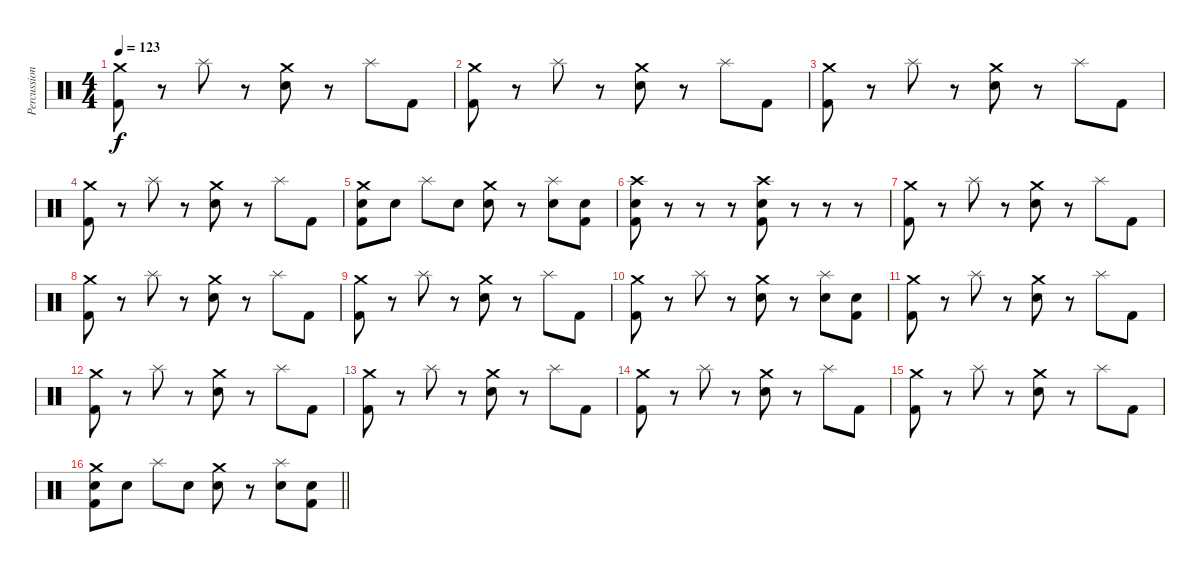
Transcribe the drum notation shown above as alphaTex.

\track ("Percussion" "Percussion") {instrument percussion}
\staff {score}
\articulation defaults
\ts (4 4)
\tempo 123
\clef neutral
\ks c
("Crash medium (hit)" "Kick (hit) 2").8{dy f} r.8 "Splash (hit)".8 r.8 ("Crash medium (hit)" "Snare (hit) 2").8 r.8 "Splash (hit)".8 "Kick (hit) 2".8 |
("Crash medium (hit)" "Kick (hit) 2").8 r.8 "Splash (hit)".8 r.8 ("Crash medium (hit)" "Snare (hit) 2").8 r.8 "Splash (hit)".8 "Kick (hit) 2".8 |
("Crash medium (hit)" "Kick (hit) 2").8 r.8 "Splash (hit)".8 r.8 ("Crash medium (hit)" "Snare (hit) 2").8 r.8 "Splash (hit)".8 "Kick (hit) 2".8 |
("Crash medium (hit)" "Kick (hit) 2").8 r.8 "Splash (hit)".8 r.8 ("Crash medium (hit)" "Snare (hit) 2").8 r.8 "Splash (hit)".8 "Kick (hit) 2".8 |
("Crash medium (hit)" "Snare (hit) 2" "Kick (hit) 2").8 "Snare (hit) 2".8 "Splash (hit)".8 "Snare (hit) 2".8 ("Crash medium (hit)" "Snare (hit) 2").8 r.8 ("Splash (hit)" "Snare (hit) 2").8 ("Snare (hit) 2" "Kick (hit) 2").8 |
("Crash high (hit)" "Snare (hit) 2" "Kick (hit) 2").8 r.8 r.8 r.8 ("Crash high (hit)" "Snare (hit) 2" "Kick (hit) 2").8 r.8 r.8 r.8 |
("Crash medium (hit)" "Kick (hit) 2").8 r.8 "Splash (hit)".8 r.8 ("Crash medium (hit)" "Snare (hit) 2").8 r.8 "Splash (hit)".8 "Kick (hit) 2".8 |
("Crash medium (hit)" "Kick (hit) 2").8 r.8 "Splash (hit)".8 r.8 ("Crash medium (hit)" "Snare (hit) 2").8 r.8 "Splash (hit)".8 "Kick (hit) 2".8 |
("Crash medium (hit)" "Kick (hit) 2").8 r.8 "Splash (hit)".8 r.8 ("Crash medium (hit)" "Snare (hit) 2").8 r.8 "Splash (hit)".8 "Kick (hit) 2".8 |
("Crash medium (hit)" "Kick (hit) 2").8 r.8 "Splash (hit)".8 r.8 ("Crash medium (hit)" "Snare (hit) 2").8 r.8 ("Splash (hit)" "Snare (hit) 2").8 ("Snare (hit) 2" "Kick (hit) 2").8 |
("Crash medium (hit)" "Kick (hit) 2").8 r.8 "Splash (hit)".8 r.8 ("Crash medium (hit)" "Snare (hit) 2").8 r.8 "Splash (hit)".8 "Kick (hit) 2".8 |
("Crash medium (hit)" "Kick (hit) 2").8 r.8 "Splash (hit)".8 r.8 ("Crash medium (hit)" "Snare (hit) 2").8 r.8 "Splash (hit)".8 "Kick (hit) 2".8 |
("Crash medium (hit)" "Kick (hit) 2").8 r.8 "Splash (hit)".8 r.8 ("Crash medium (hit)" "Snare (hit) 2").8 r.8 "Splash (hit)".8 "Kick (hit) 2".8 |
("Crash medium (hit)" "Kick (hit) 2").8 r.8 "Splash (hit)".8 r.8 ("Crash medium (hit)" "Snare (hit) 2").8 r.8 "Splash (hit)".8 "Kick (hit) 2".8 |
("Crash medium (hit)" "Kick (hit) 2").8 r.8 "Splash (hit)".8 r.8 ("Crash medium (hit)" "Snare (hit) 2").8 r.8 "Splash (hit)".8 "Kick (hit) 2".8 |
\barLineRight lightlight
("Crash medium (hit)" "Snare (hit) 2" "Kick (hit) 2").8 "Snare (hit) 2".8 "Splash (hit)".8 "Snare (hit) 2".8 ("Crash medium (hit)" "Snare (hit) 2").8 r.8 ("Splash (hit)" "Snare (hit) 2").8 ("Snare (hit) 2" "Kick (hit) 2").8
